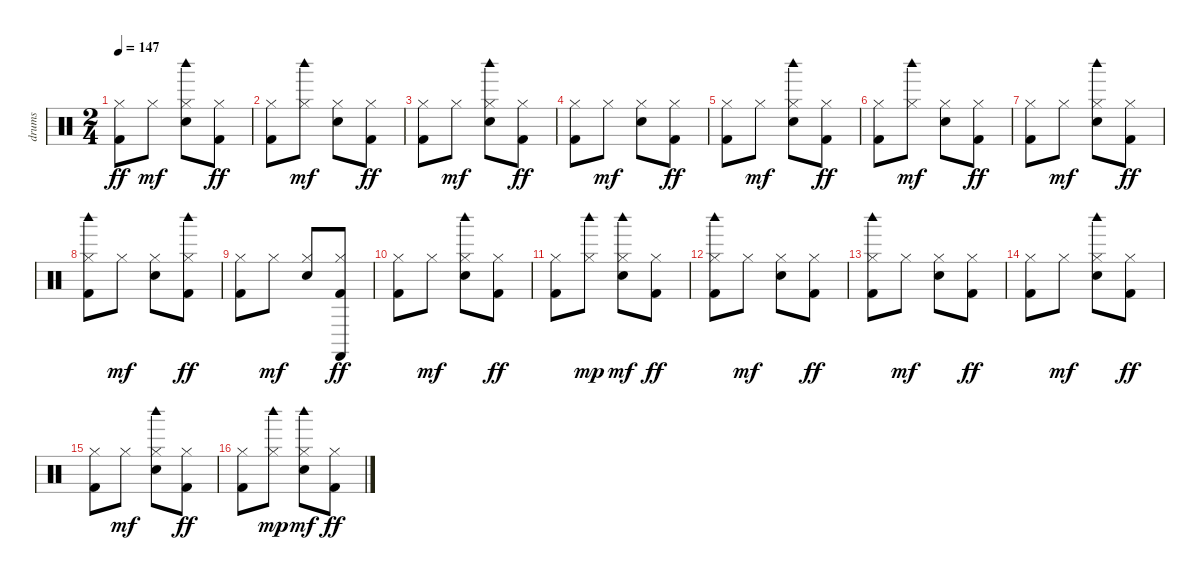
\track ("drums" "drums") {instrument percussion}
\staff {score}
\articulation defaults
\ts (2 4)
\tempo 147
\clef neutral
\ks c
("Hi-Hat (closed)" "Kick (hit) 2").8{dy ff} "Hi-Hat (closed)".8{dy mf} ("Hi-Hat (closed)" "Woodblock high (hit)" "Electric Snare (hit)").8 ("Hi-Hat (closed)" "Kick (hit) 2").8{dy ff} |
("Hi-Hat (closed)" "Kick (hit) 2").8 ("Hi-Hat (closed)" "Woodblock high (hit)").8{dy mf} ("Hi-Hat (closed)" "Electric Snare (hit)").8 ("Hi-Hat (closed)" "Kick (hit) 2").8{dy ff} |
("Hi-Hat (closed)" "Kick (hit) 2").8 "Hi-Hat (closed)".8{dy mf} ("Hi-Hat (closed)" "Woodblock high (hit)" "Electric Snare (hit)").8 ("Hi-Hat (closed)" "Kick (hit) 2").8{dy ff} |
("Hi-Hat (closed)" "Kick (hit) 2").8 "Hi-Hat (closed)".8{dy mf} ("Hi-Hat (closed)" "Electric Snare (hit)").8 ("Hi-Hat (closed)" "Kick (hit) 2").8{dy ff} |
("Hi-Hat (closed)" "Kick (hit) 2").8 "Hi-Hat (closed)".8{dy mf} ("Hi-Hat (closed)" "Woodblock high (hit)" "Electric Snare (hit)").8 ("Hi-Hat (closed)" "Kick (hit) 2").8{dy ff} |
("Hi-Hat (closed)" "Kick (hit) 2").8 ("Hi-Hat (closed)" "Woodblock high (hit)").8{dy mf} ("Hi-Hat (closed)" "Electric Snare (hit)").8 ("Hi-Hat (closed)" "Kick (hit) 2").8{dy ff} |
("Hi-Hat (closed)" "Kick (hit) 2").8 "Hi-Hat (closed)".8{dy mf} ("Hi-Hat (closed)" "Woodblock high (hit)" "Electric Snare (hit)").8 ("Hi-Hat (closed)" "Kick (hit) 2").8{dy ff} |
("Hi-Hat (closed)" "Woodblock high (hit)" "Kick (hit) 2").8 "Hi-Hat (closed)".8{dy mf} ("Hi-Hat (closed)" "Electric Snare (hit)").8 ("Hi-Hat (closed)" "Woodblock high (hit)" "Kick (hit) 2").8{dy ff} |
("Hi-Hat (closed)" "Kick (hit) 2").8 "Hi-Hat (closed)".8{dy mf} ("Hi-Hat (closed)" "Electric Snare (hit)").8 ("Hi-Hat (closed)" "Castanets (hit)" "Kick (hit) 2").8{dy ff} |
("Hi-Hat (closed)" "Kick (hit) 2").8 "Hi-Hat (closed)".8{dy mf} ("Hi-Hat (closed)" "Woodblock high (hit)" "Electric Snare (hit)").8 ("Hi-Hat (closed)" "Kick (hit) 2").8{dy ff} |
("Hi-Hat (closed)" "Kick (hit) 2").8 ("Hi-Hat (closed)" "Woodblock high (hit)").8{dy mp} ("Hi-Hat (closed)" "Woodblock high (hit)" "Electric Snare (hit)").8{dy mf} ("Hi-Hat (closed)" "Kick (hit) 2").8{dy ff} |
("Hi-Hat (closed)" "Woodblock high (hit)" "Kick (hit) 2").8 "Hi-Hat (closed)".8{dy mf} ("Hi-Hat (closed)" "Electric Snare (hit)").8 ("Hi-Hat (closed)" "Kick (hit) 2").8{dy ff} |
("Hi-Hat (closed)" "Woodblock high (hit)" "Kick (hit) 2").8 "Hi-Hat (closed)".8{dy mf} ("Hi-Hat (closed)" "Electric Snare (hit)").8 ("Hi-Hat (closed)" "Kick (hit) 2").8{dy ff} |
("Hi-Hat (closed)" "Kick (hit) 2").8 "Hi-Hat (closed)".8{dy mf} ("Hi-Hat (closed)" "Woodblock high (hit)" "Electric Snare (hit)").8 ("Hi-Hat (closed)" "Kick (hit) 2").8{dy ff} |
("Hi-Hat (closed)" "Kick (hit) 2").8 "Hi-Hat (closed)".8{dy mf} ("Hi-Hat (closed)" "Woodblock high (hit)" "Electric Snare (hit)").8 ("Hi-Hat (closed)" "Kick (hit) 2").8{dy ff} |
("Hi-Hat (closed)" "Kick (hit) 2").8 ("Hi-Hat (closed)" "Woodblock high (hit)").8{dy mp} ("Hi-Hat (closed)" "Woodblock high (hit)" "Electric Snare (hit)").8{dy mf} ("Hi-Hat (closed)" "Kick (hit) 2").8{dy ff}
